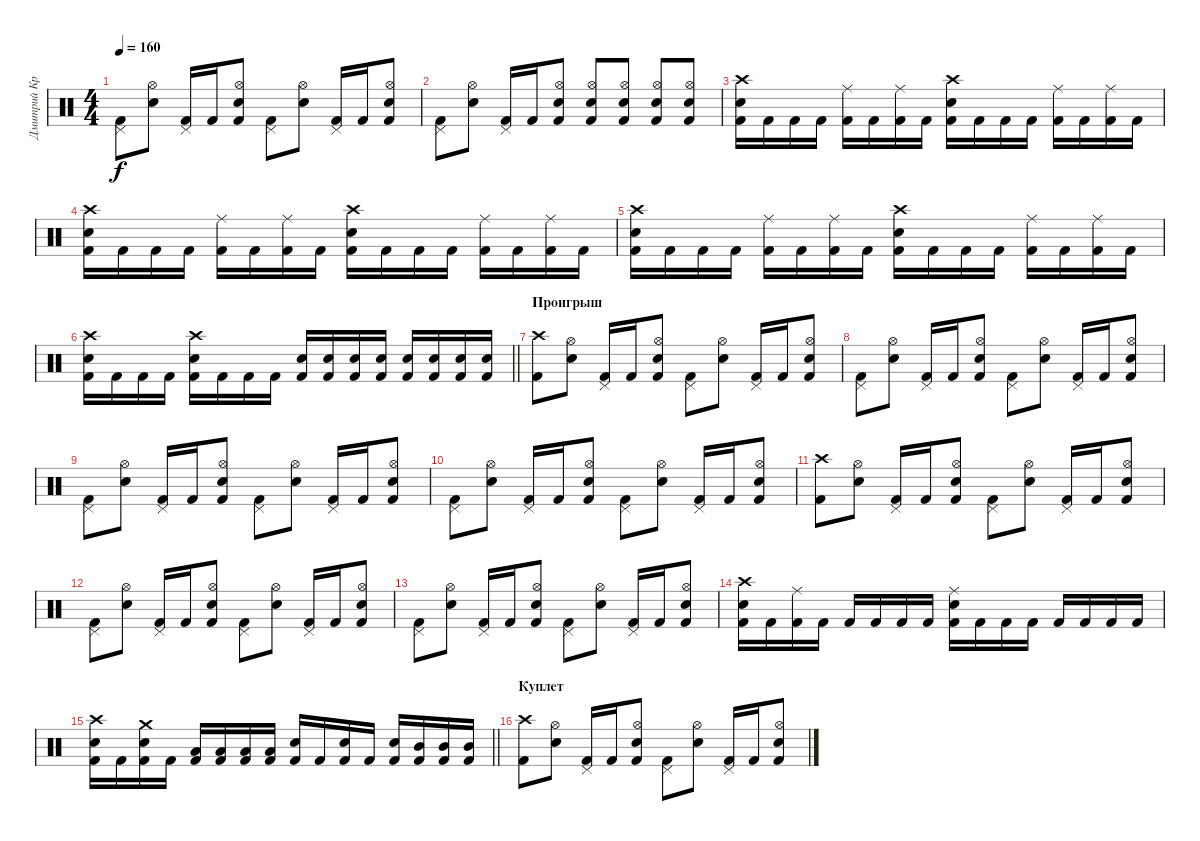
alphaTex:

\track ("Дмитрий Кривенков" "Дмитрий Кр") {instrument percussion}
\staff {score}
\articulation defaults
\ts (4 4)
\tempo 160
\clef neutral
\ks c
("Pedal Hi-Hat (hit)" "Kick (hit) 2").8{dy f} ("Hi-Hat (open)" "Electric Snare (hit)").8 ("Pedal Hi-Hat (hit)" "Kick (hit) 2").16 "Kick (hit) 2".16 ("Hi-Hat (open)" "Electric Snare (hit)" "Kick (hit) 2").8 ("Pedal Hi-Hat (hit)" "Kick (hit) 2").8 ("Hi-Hat (open)" "Electric Snare (hit)").8 ("Pedal Hi-Hat (hit)" "Kick (hit) 2").16 "Kick (hit) 2".16 ("Hi-Hat (open)" "Electric Snare (hit)" "Kick (hit) 2").8 |
("Pedal Hi-Hat (hit)" "Kick (hit) 2").8 ("Hi-Hat (open)" "Electric Snare (hit)").8 ("Pedal Hi-Hat (hit)" "Kick (hit) 2").16 "Kick (hit) 2".16 ("Hi-Hat (open)" "Electric Snare (hit)" "Kick (hit) 2").8 ("Hi-Hat (open)" "Electric Snare (hit)" "Kick (hit) 2").8 ("Hi-Hat (open)" "Electric Snare (hit)" "Kick (hit) 2").8 ("Hi-Hat (open)" "Electric Snare (hit)" "Kick (hit) 2").8 ("Hi-Hat (open)" "Electric Snare (hit)" "Kick (hit) 2").8 |
("Crash high (hit)" "Electric Snare (hit)" "Kick (hit) 2").16 "Kick (hit) 2".16 "Kick (hit) 2".16 "Kick (hit) 2".16 ("Ride (middle)" "Kick (hit) 2").16 "Kick (hit) 2".16 ("Ride (middle)" "Kick (hit) 2").16 "Kick (hit) 2".16 ("Crash high (hit)" "Electric Snare (hit)" "Kick (hit) 2").16 "Kick (hit) 2".16 "Kick (hit) 2".16 "Kick (hit) 2".16 ("Ride (middle)" "Kick (hit) 2").16 "Kick (hit) 2".16 ("Ride (middle)" "Kick (hit) 2").16 "Kick (hit) 2".16 |
("Crash high (hit)" "Electric Snare (hit)" "Kick (hit) 2").16 "Kick (hit) 2".16 "Kick (hit) 2".16 "Kick (hit) 2".16 ("Ride (middle)" "Kick (hit) 2").16 "Kick (hit) 2".16 ("Ride (middle)" "Kick (hit) 2").16 "Kick (hit) 2".16 ("Crash high (hit)" "Electric Snare (hit)" "Kick (hit) 2").16 "Kick (hit) 2".16 "Kick (hit) 2".16 "Kick (hit) 2".16 ("Ride (middle)" "Kick (hit) 2").16 "Kick (hit) 2".16 ("Ride (middle)" "Kick (hit) 2").16 "Kick (hit) 2".16 |
("Crash high (hit)" "Electric Snare (hit)" "Kick (hit) 2").16 "Kick (hit) 2".16 "Kick (hit) 2".16 "Kick (hit) 2".16 ("Ride (middle)" "Kick (hit) 2").16 "Kick (hit) 2".16 ("Ride (middle)" "Kick (hit) 2").16 "Kick (hit) 2".16 ("Crash high (hit)" "Electric Snare (hit)" "Kick (hit) 2").16 "Kick (hit) 2".16 "Kick (hit) 2".16 "Kick (hit) 2".16 ("Ride (middle)" "Kick (hit) 2").16 "Kick (hit) 2".16 ("Ride (middle)" "Kick (hit) 2").16 "Kick (hit) 2".16 |
\barLineRight lightlight
("Crash high (hit)" "Electric Snare (hit)" "Kick (hit) 2").16 "Kick (hit) 2".16 "Kick (hit) 2".16 "Kick (hit) 2".16 ("Crash high (hit)" "Electric Snare (hit)" "Kick (hit) 2").16 "Kick (hit) 2".16 "Kick (hit) 2".16 "Kick (hit) 2".16 ("Electric Snare (hit)" "Kick (hit) 2").16 ("Electric Snare (hit)" "Kick (hit) 2").16 ("Electric Snare (hit)" "Kick (hit) 2").16 ("Electric Snare (hit)" "Kick (hit) 2").16 ("Electric Snare (hit)" "Kick (hit) 2").16 ("Electric Snare (hit)" "Kick (hit) 2").16 ("Electric Snare (hit)" "Kick (hit) 2").16 ("Electric Snare (hit)" "Kick (hit) 2").16 |
\section ("" "Проигрыш")
("Crash high (hit)" "Kick (hit) 2").8 ("Hi-Hat (open)" "Electric Snare (hit)").8 ("Pedal Hi-Hat (hit)" "Kick (hit) 2").16 "Kick (hit) 2".16 ("Hi-Hat (open)" "Electric Snare (hit)" "Kick (hit) 2").8 ("Pedal Hi-Hat (hit)" "Kick (hit) 2").8 ("Hi-Hat (open)" "Electric Snare (hit)").8 ("Pedal Hi-Hat (hit)" "Kick (hit) 2").16 "Kick (hit) 2".16 ("Hi-Hat (open)" "Electric Snare (hit)" "Kick (hit) 2").8 |
("Pedal Hi-Hat (hit)" "Kick (hit) 2").8 ("Hi-Hat (open)" "Electric Snare (hit)").8 ("Pedal Hi-Hat (hit)" "Kick (hit) 2").16 "Kick (hit) 2".16 ("Hi-Hat (open)" "Electric Snare (hit)" "Kick (hit) 2").8 ("Pedal Hi-Hat (hit)" "Kick (hit) 2").8 ("Hi-Hat (open)" "Electric Snare (hit)").8 ("Pedal Hi-Hat (hit)" "Kick (hit) 2").16 "Kick (hit) 2".16 ("Hi-Hat (open)" "Electric Snare (hit)" "Kick (hit) 2").8 |
("Pedal Hi-Hat (hit)" "Kick (hit) 2").8 ("Hi-Hat (open)" "Electric Snare (hit)").8 ("Pedal Hi-Hat (hit)" "Kick (hit) 2").16 "Kick (hit) 2".16 ("Hi-Hat (open)" "Electric Snare (hit)" "Kick (hit) 2").8 ("Pedal Hi-Hat (hit)" "Kick (hit) 2").8 ("Hi-Hat (open)" "Electric Snare (hit)").8 ("Pedal Hi-Hat (hit)" "Kick (hit) 2").16 "Kick (hit) 2".16 ("Hi-Hat (open)" "Electric Snare (hit)" "Kick (hit) 2").8 |
("Pedal Hi-Hat (hit)" "Kick (hit) 2").8 ("Hi-Hat (open)" "Electric Snare (hit)").8 ("Pedal Hi-Hat (hit)" "Kick (hit) 2").16 "Kick (hit) 2".16 ("Hi-Hat (open)" "Electric Snare (hit)" "Kick (hit) 2").8 ("Pedal Hi-Hat (hit)" "Kick (hit) 2").8 ("Hi-Hat (open)" "Electric Snare (hit)").8 ("Pedal Hi-Hat (hit)" "Kick (hit) 2").16 "Kick (hit) 2".16 ("Hi-Hat (open)" "Electric Snare (hit)" "Kick (hit) 2").8 |
("Crash high (hit)" "Kick (hit) 2").8 ("Hi-Hat (open)" "Electric Snare (hit)").8 ("Pedal Hi-Hat (hit)" "Kick (hit) 2").16 "Kick (hit) 2".16 ("Hi-Hat (open)" "Electric Snare (hit)" "Kick (hit) 2").8 ("Pedal Hi-Hat (hit)" "Kick (hit) 2").8 ("Hi-Hat (open)" "Electric Snare (hit)").8 ("Pedal Hi-Hat (hit)" "Kick (hit) 2").16 "Kick (hit) 2".16 ("Hi-Hat (open)" "Electric Snare (hit)" "Kick (hit) 2").8 |
("Pedal Hi-Hat (hit)" "Kick (hit) 2").8 ("Hi-Hat (open)" "Electric Snare (hit)").8 ("Pedal Hi-Hat (hit)" "Kick (hit) 2").16 "Kick (hit) 2".16 ("Hi-Hat (open)" "Electric Snare (hit)" "Kick (hit) 2").8 ("Pedal Hi-Hat (hit)" "Kick (hit) 2").8 ("Hi-Hat (open)" "Electric Snare (hit)").8 ("Pedal Hi-Hat (hit)" "Kick (hit) 2").16 "Kick (hit) 2".16 ("Hi-Hat (open)" "Electric Snare (hit)" "Kick (hit) 2").8 |
("Pedal Hi-Hat (hit)" "Kick (hit) 2").8 ("Hi-Hat (open)" "Electric Snare (hit)").8 ("Pedal Hi-Hat (hit)" "Kick (hit) 2").16 "Kick (hit) 2".16 ("Hi-Hat (open)" "Electric Snare (hit)" "Kick (hit) 2").8 ("Pedal Hi-Hat (hit)" "Kick (hit) 2").8 ("Hi-Hat (open)" "Electric Snare (hit)").8 ("Pedal Hi-Hat (hit)" "Kick (hit) 2").16 "Kick (hit) 2".16 ("Hi-Hat (open)" "Electric Snare (hit)" "Kick (hit) 2").8 |
("Crash high (hit)" "Electric Snare (hit)" "Kick (hit) 2").16 "Kick (hit) 2".16 ("Ride (middle)" "Kick (hit) 2").16 "Kick (hit) 2".16 "Kick (hit) 2".16 "Kick (hit) 2".16 "Kick (hit) 2".16 "Kick (hit) 2".16 ("Ride (middle)" "Electric Snare (hit)" "Kick (hit) 2").16 "Kick (hit) 2".16 "Kick (hit) 2".16 "Kick (hit) 2".16 "Kick (hit) 2".16 "Kick (hit) 2".16 "Kick (hit) 2".16 "Kick (hit) 2".16 |
\barLineRight lightlight
("Crash high (hit)" "Electric Snare (hit)" "Kick (hit) 2").16 "Kick (hit) 2".16 ("Crash medium (hit)" "Electric Snare (hit)" "Kick (hit) 2").16 "Kick (hit) 2".16 ("Low Tom (hit)" "Kick (hit) 2").16 ("Low Tom (hit)" "Kick (hit) 2").16 ("Low Tom (hit)" "Kick (hit) 2").16 ("Low Tom (hit)" "Kick (hit) 2").16 ("Electric Snare (hit)" "Kick (hit) 2").16 "Kick (hit) 2".16 ("Electric Snare (hit)" "Kick (hit) 2").16 "Kick (hit) 2".16 ("Electric Snare (hit)" "Kick (hit) 2").16 ("Mid Tom (hit)" "Kick (hit) 2").16 ("Mid Tom (hit)" "Kick (hit) 2").16 ("Mid Tom (hit)" "Kick (hit) 2").16 |
\section ("" "Куплет")
("Crash high (hit)" "Kick (hit) 2").8 ("Hi-Hat (open)" "Electric Snare (hit)").8 ("Pedal Hi-Hat (hit)" "Kick (hit) 2").16 "Kick (hit) 2".16 ("Hi-Hat (open)" "Electric Snare (hit)" "Kick (hit) 2").8 ("Pedal Hi-Hat (hit)" "Kick (hit) 2").8 ("Hi-Hat (open)" "Electric Snare (hit)").8 ("Pedal Hi-Hat (hit)" "Kick (hit) 2").16 "Kick (hit) 2".16 ("Hi-Hat (open)" "Electric Snare (hit)" "Kick (hit) 2").8
